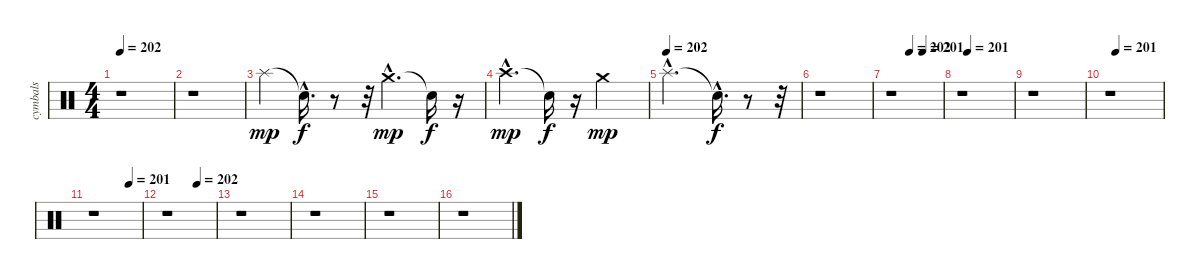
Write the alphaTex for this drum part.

\track ("cymbals" "cymbals") {instrument percussion}
\staff {score}
\articulation defaults
\ts (4 4)
\tempo 202
\clef neutral
\ks c
r.1{dy f} |
r.1 |
"Splash (hit)".4{dy mp} "Snare (hit)"{hac t}.16{d dy f} r.8 r.32 "Crash medium (hit)"{hac}.4{d dy mp} "Snare (hit)"{t}.16{dy f} r.16 |
"Crash high (hit)"{hac}.4{d dy mp} "Snare (hit)"{t}.16{dy f} r.16 "Crash medium (hit)".2{dy mp} |
\tempo (202)
"Splash (hit)"{hac}.2{d} "Snare (hit)"{hac t}.16{d dy f} r.8 r.32 |
r.1 |
\tempo (202 0.375)
\tempo (201 0.625)
r.1 |
\tempo (201 0.125)
r.1 |
r.1 |
\tempo (201 0.125)
r.1 |
\tempo (201 0.75)
r.1 |
\tempo (202 0.625)
r.1 |
r.1 |
r.1 |
r.1 |
r.1
